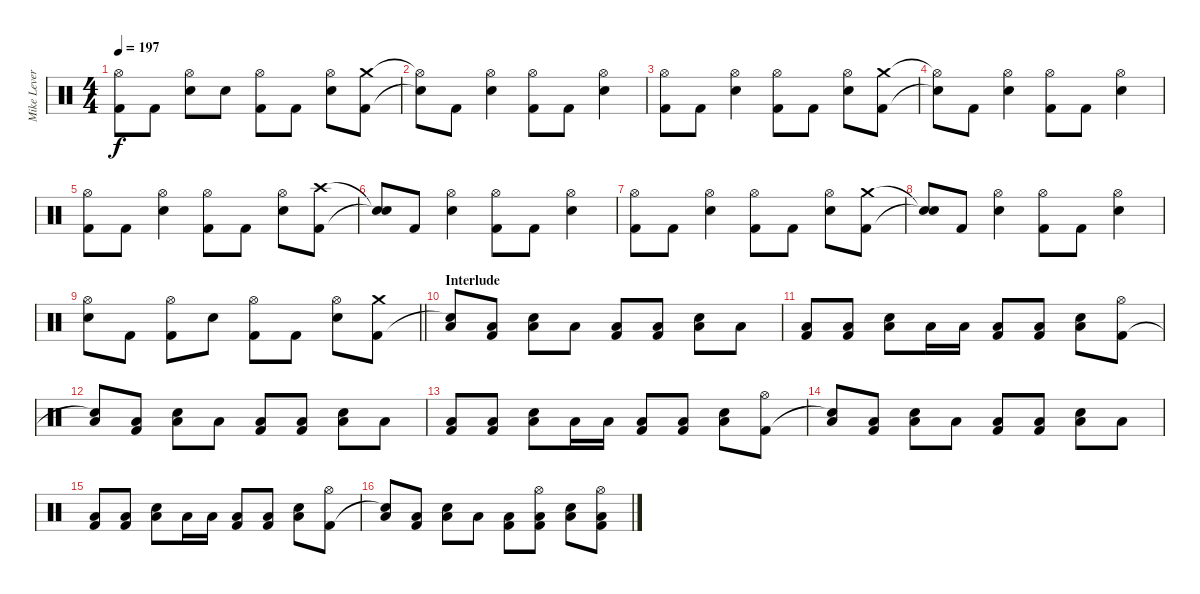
\track ("Mike Leverence - Drums" "Mike Lever") {instrument percussion}
\staff {score}
\articulation defaults
\ts (4 4)
\tempo 197
\clef neutral
\ks c
("Hi-Hat (open)" "Kick (hit) 2").8{dy f} "Kick (hit) 2".8 ("Hi-Hat (open)" "Electric Snare (hit)").8 "Electric Snare (hit)".8 ("Hi-Hat (open)" "Kick (hit) 2").8 "Kick (hit) 2".8 ("Hi-Hat (open)" "Electric Snare (hit)").8 ("Crash medium (hit)" "Kick (hit) 2").8 |
("Hi-Hat (open)"{t} "Snare (hit)"{t}).8 "Kick (hit) 2".8 ("Hi-Hat (open)" "Electric Snare (hit)").4 ("Hi-Hat (open)" "Kick (hit) 2").8 "Kick (hit) 2".8 ("Hi-Hat (open)" "Electric Snare (hit)").4 |
("Hi-Hat (open)" "Kick (hit) 2").8 "Kick (hit) 2".8 ("Hi-Hat (open)" "Electric Snare (hit)").4 ("Hi-Hat (open)" "Kick (hit) 2").8 "Kick (hit) 2".8 ("Hi-Hat (open)" "Electric Snare (hit)").8 ("Crash medium (hit)" "Kick (hit) 2").8 |
("Hi-Hat (open)"{t} "Snare (hit)"{t}).8 "Kick (hit) 2".8 ("Hi-Hat (open)" "Electric Snare (hit)").4 ("Hi-Hat (open)" "Kick (hit) 2").8 "Kick (hit) 2".8 ("Hi-Hat (open)" "Electric Snare (hit)").4 |
("Hi-Hat (open)" "Kick (hit) 2").8 "Kick (hit) 2".8 ("Hi-Hat (open)" "Electric Snare (hit)").4 ("Hi-Hat (open)" "Kick (hit) 2").8 "Kick (hit) 2".8 ("Hi-Hat (open)" "Electric Snare (hit)").8 ("Crash high (hit)" "Kick (hit) 2").8 |
("Snare (hit)"{t} "Snare (hit)"{t}).8 "Kick (hit) 2".8 ("Hi-Hat (open)" "Electric Snare (hit)").4 ("Hi-Hat (open)" "Kick (hit) 2").8 "Kick (hit) 2".8 ("Hi-Hat (open)" "Electric Snare (hit)").4 |
("Hi-Hat (open)" "Kick (hit) 2").8 "Kick (hit) 2".8 ("Hi-Hat (open)" "Electric Snare (hit)").4 ("Hi-Hat (open)" "Kick (hit) 2").8 "Kick (hit) 2".8 ("Hi-Hat (open)" "Electric Snare (hit)").8 ("Crash medium (hit)" "Kick (hit) 2").8 |
("Snare (hit)"{t} "Snare (hit)"{t}).8 "Kick (hit) 2".8 ("Hi-Hat (open)" "Electric Snare (hit)").4 ("Hi-Hat (open)" "Kick (hit) 2").8 "Kick (hit) 2".8 ("Hi-Hat (open)" "Electric Snare (hit)").4 |
\barLineRight lightlight
("Hi-Hat (open)" "Electric Snare (hit)").8 "Kick (hit) 2".8 ("Hi-Hat (open)" "Kick (hit) 2").8 "Electric Snare (hit)".8 ("Hi-Hat (open)" "Kick (hit) 2").8 "Kick (hit) 2".8 ("Hi-Hat (open)" "Electric Snare (hit)").8 ("Crash medium (hit)" "Kick (hit) 2").8 |
\section ("" "Interlude")
("Low Floor Tom (hit)" "Snare (hit)"{t}).8 ("Low Floor Tom (hit)" "Kick (hit) 2").8 ("Low Floor Tom (hit)" "Electric Snare (hit)").8 "Low Floor Tom (hit)".8 ("Low Floor Tom (hit)" "Kick (hit) 2").8 ("Low Floor Tom (hit)" "Kick (hit) 2").8 ("Low Floor Tom (hit)" "Electric Snare (hit)").8 "Low Floor Tom (hit)".8 |
("Low Floor Tom (hit)" "Kick (hit) 2").8 ("Low Floor Tom (hit)" "Kick (hit) 2").8 ("Low Floor Tom (hit)" "Electric Snare (hit)").8 "Low Floor Tom (hit)".16 "Low Floor Tom (hit)".16 ("Low Floor Tom (hit)" "Kick (hit) 2").8 ("Low Floor Tom (hit)" "Kick (hit) 2").8 ("Low Floor Tom (hit)" "Electric Snare (hit)").8 ("Hi-Hat (open)" "Kick (hit) 2").8 |
("Low Floor Tom (hit)" "Snare (hit)"{t}).8 ("Low Floor Tom (hit)" "Kick (hit) 2").8 ("Low Floor Tom (hit)" "Electric Snare (hit)").8 "Low Floor Tom (hit)".8 ("Low Floor Tom (hit)" "Kick (hit) 2").8 ("Low Floor Tom (hit)" "Kick (hit) 2").8 ("Low Floor Tom (hit)" "Electric Snare (hit)").8 "Low Floor Tom (hit)".8 |
("Low Floor Tom (hit)" "Kick (hit) 2").8 ("Low Floor Tom (hit)" "Kick (hit) 2").8 ("Low Floor Tom (hit)" "Electric Snare (hit)").8 "Low Floor Tom (hit)".16 "Low Floor Tom (hit)".16 ("Low Floor Tom (hit)" "Kick (hit) 2").8 ("Low Floor Tom (hit)" "Kick (hit) 2").8 ("Low Floor Tom (hit)" "Electric Snare (hit)").8 ("Hi-Hat (open)" "Kick (hit) 2").8 |
("Low Floor Tom (hit)" "Snare (hit)"{t}).8 ("Low Floor Tom (hit)" "Kick (hit) 2").8 ("Low Floor Tom (hit)" "Electric Snare (hit)").8 "Low Floor Tom (hit)".8 ("Low Floor Tom (hit)" "Kick (hit) 2").8 ("Low Floor Tom (hit)" "Kick (hit) 2").8 ("Low Floor Tom (hit)" "Electric Snare (hit)").8 "Low Floor Tom (hit)".8 |
("Low Floor Tom (hit)" "Kick (hit) 2").8 ("Low Floor Tom (hit)" "Kick (hit) 2").8 ("Low Floor Tom (hit)" "Electric Snare (hit)").8 "Low Floor Tom (hit)".16 "Low Floor Tom (hit)".16 ("Low Floor Tom (hit)" "Kick (hit) 2").8 ("Low Floor Tom (hit)" "Kick (hit) 2").8 ("Low Floor Tom (hit)" "Electric Snare (hit)").8 ("Hi-Hat (open)" "Kick (hit) 2").8 |
("Low Floor Tom (hit)" "Snare (hit)"{t}).8 ("Low Floor Tom (hit)" "Kick (hit) 2").8 ("Low Floor Tom (hit)" "Electric Snare (hit)").8 "Low Floor Tom (hit)".8 ("Low Floor Tom (hit)" "Kick (hit) 2").8 ("Hi-Hat (open)" "Low Floor Tom (hit)" "Kick (hit) 2").8 ("Low Floor Tom (hit)" "Electric Snare (hit)").8 ("Hi-Hat (open)" "Low Floor Tom (hit)" "Kick (hit) 2").8
